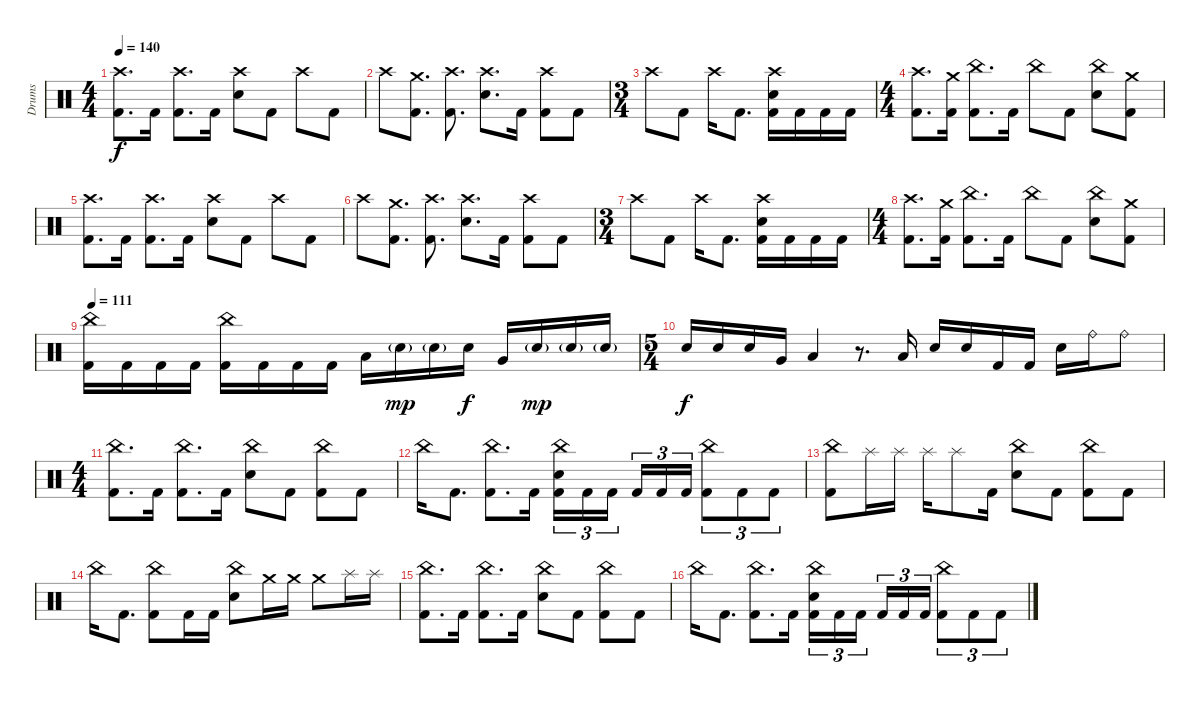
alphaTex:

\track ("Drums" "Drums") {instrument percussion}
\staff {score}
\articulation defaults
\ts (4 4)
\tempo 140
\clef neutral
\ks c
("Crash high (hit)" "Kick (hit) 2").8{d dy f} "Kick (hit) 2".16 ("Crash high (hit)" "Kick (hit) 2").8{d} "Kick (hit) 2".16 ("Crash high (hit)" "Electric Snare (hit)").8 "Kick (hit) 2".8 "Crash high (hit)".8 "Kick (hit) 2".8 |
"Crash high (hit)".8 ("Crash medium (hit)" "Kick (hit) 2").8{d} ("Crash high (hit)" "Kick (hit) 2").8{d} ("Crash high (hit)" "Electric Snare (hit)").8{d} "Kick (hit) 2".16 ("Crash high (hit)" "Kick (hit) 2").8 "Kick (hit) 2".8 |
\ts (3 4)
"Crash high (hit)".8 "Kick (hit) 2".8 "Crash high (hit)".16 "Kick (hit) 2".8{d} ("Crash high (hit)" "Electric Snare (hit)" "Kick (hit) 2").16 "Kick (hit) 2".16 "Kick (hit) 2".16 "Kick (hit) 2".16 |
\ts (4 4)
("Crash high (hit)" "Kick (hit) 2").8{d} ("Crash medium (hit)" "Kick (hit) 2").16 ("China (hit)" "Kick (hit) 2").8{d} "Kick (hit) 2".16 "China (hit)".8 "Kick (hit) 2".8 ("China (hit)" "Electric Snare (hit)").8 ("Crash medium (hit)" "Kick (hit) 2").8 |
("Crash high (hit)" "Kick (hit) 2").8{d} "Kick (hit) 2".16 ("Crash high (hit)" "Kick (hit) 2").8{d} "Kick (hit) 2".16 ("Crash high (hit)" "Electric Snare (hit)").8 "Kick (hit) 2".8 "Crash high (hit)".8 "Kick (hit) 2".8 |
"Crash high (hit)".8 ("Crash medium (hit)" "Kick (hit) 2").8{d} ("Crash high (hit)" "Kick (hit) 2").8{d} ("Crash high (hit)" "Electric Snare (hit)").8{d} "Kick (hit) 2".16 ("Crash high (hit)" "Kick (hit) 2").8 "Kick (hit) 2".8 |
\ts (3 4)
"Crash high (hit)".8 "Kick (hit) 2".8 "Crash high (hit)".16 "Kick (hit) 2".8{d} ("Crash high (hit)" "Electric Snare (hit)" "Kick (hit) 2").16 "Kick (hit) 2".16 "Kick (hit) 2".16 "Kick (hit) 2".16 |
\ts (4 4)
("Crash high (hit)" "Kick (hit) 2").8{d} ("Crash medium (hit)" "Kick (hit) 2").16 ("China (hit)" "Kick (hit) 2").8{d} "Kick (hit) 2".16 "China (hit)".8 "Kick (hit) 2".8 ("China (hit)" "Electric Snare (hit)").8 ("Crash medium (hit)" "Kick (hit) 2").8 |
\tempo 111
("China (hit)" "Kick (hit) 2").16 "Kick (hit) 2".16 "Kick (hit) 2".16 "Kick (hit) 2".16 ("China (hit)" "Kick (hit) 2").16 "Kick (hit) 2".16 "Kick (hit) 2".16 "Kick (hit) 2".16 "Low Tom (hit)".16 "Electric Snare (hit)"{g}.16{dy mp} "Electric Snare (hit)"{g}.16 "Electric Snare (hit)".16{dy f} "Very Low Tom (hit)".16 "Electric Snare (hit)"{g}.16{dy mp} "Electric Snare (hit)"{g}.16 "Electric Snare (hit)"{g}.16 |
\ts (5 4)
"Electric Snare (hit)".16{dy f} "Electric Snare (hit)".16 "Electric Snare (hit)".16 "Very Low Tom (hit)".16 "Low Floor Tom (hit)".4 r.8{d} "Low Floor Tom (hit)".16 "Electric Snare (hit)".16 "Electric Snare (hit)".16 "Kick (hit) 2".16 "Kick (hit) 2".16 "Electric Snare (hit)".16 "Ride (bell)".16 "Ride (bell)".8 |
\ts (4 4)
("China (hit)" "Kick (hit) 2").8{d} "Kick (hit) 2".16 ("China (hit)" "Kick (hit) 2").8{d} "Kick (hit) 2".16 ("China (hit)" "Electric Snare (hit)").8 "Kick (hit) 2".8 ("China (hit)" "Kick (hit) 2").8 "Kick (hit) 2".8 |
"China (hit)".16 "Kick (hit) 2".8{d} ("China (hit)" "Kick (hit) 2").8{d} "Kick (hit) 2".16 ("China (hit)" "Electric Snare (hit)" "Kick (hit) 2").16{tu (3 2)} "Kick (hit) 2".16{tu (3 2)} "Kick (hit) 2".16{tu (3 2) beam splitsecondary} "Kick (hit) 2".16{tu (3 2)} "Kick (hit) 2".16{tu (3 2)} "Kick (hit) 2".16{tu (3 2)} ("China (hit)" "Kick (hit) 2").8{tu (3 2)} "Kick (hit) 2".8{tu (3 2)} "Kick (hit) 2".8{tu (3 2)} |
("China (hit)" "Kick (hit) 2").8 "Splash (hit)".16 "Splash (hit)".16 "Splash (hit)".16 "Splash (hit)".8 "Kick (hit) 2".16 ("China (hit)" "Electric Snare (hit)").8 "Kick (hit) 2".8 ("China (hit)" "Kick (hit) 2").8 "Kick (hit) 2".8 |
"China (hit)".16 "Kick (hit) 2".8{d} ("China (hit)" "Kick (hit) 2").8 "Kick (hit) 2".16 "Kick (hit) 2".16 ("China (hit)" "Electric Snare (hit)").8 "Crash medium (hit)".16 "Crash medium (hit)".16 "Crash medium (hit)".8 "Splash (hit)".16 "Splash (hit)".16 |
("China (hit)" "Kick (hit) 2").8{d} "Kick (hit) 2".16 ("China (hit)" "Kick (hit) 2").8{d} "Kick (hit) 2".16 ("China (hit)" "Electric Snare (hit)").8 "Kick (hit) 2".8 ("China (hit)" "Kick (hit) 2").8 "Kick (hit) 2".8 |
"China (hit)".16 "Kick (hit) 2".8{d} ("China (hit)" "Kick (hit) 2").8{d} "Kick (hit) 2".16 ("China (hit)" "Electric Snare (hit)" "Kick (hit) 2").16{tu (3 2)} "Kick (hit) 2".16{tu (3 2)} "Kick (hit) 2".16{tu (3 2) beam splitsecondary} "Kick (hit) 2".16{tu (3 2)} "Kick (hit) 2".16{tu (3 2)} "Kick (hit) 2".16{tu (3 2)} ("China (hit)" "Kick (hit) 2").8{tu (3 2)} "Kick (hit) 2".8{tu (3 2)} "Kick (hit) 2".8{tu (3 2)}
